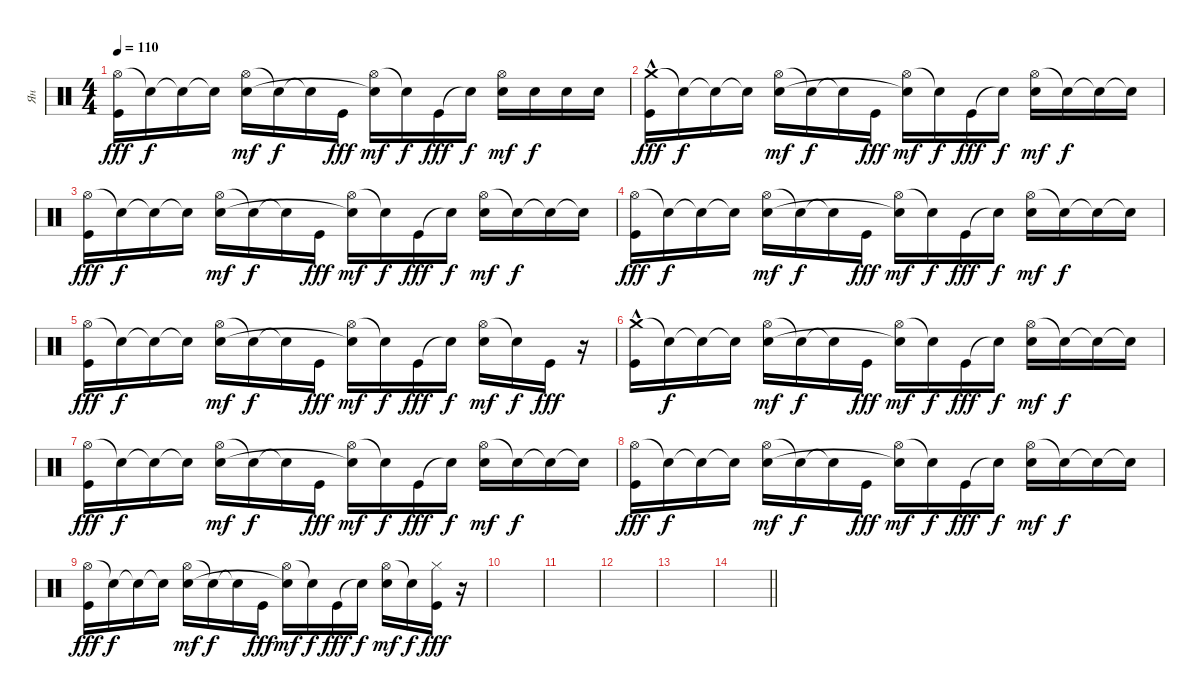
\track ("Ян " "Ян ") {instrument percussion}
\staff
\articulation defaults
\ts (4 4)
\tempo 110
\clef neutral
\ks c
("Hi-Hat (open)" "Kick (hit)").16{dy fff} "Snare (hit)"{t}.16{dy f} "Snare (hit)"{t}.16 "Snare (hit)"{t}.16 ("Hi-Hat (open)" "Snare (hit) 2").16{dy mf} "Snare (hit)"{t}.16{dy f} "Snare (hit)"{t}.16 "Kick (hit)".16{dy fff} ("Hi-Hat (open)" "Snare (hit)"{t}).16{dy mf} "Snare (hit)"{t}.16{dy f} "Kick (hit)".16{dy fff} "Snare (hit)"{t}.16{dy f} ("Hi-Hat (open)" "Snare (hit) 2").16{dy mf} "Snare (hit) 2".16{dy f} "Snare (hit) 2".16 "Snare (hit) 2".16 |
("Crash medium (hit)" "Kick (hit)"{hac}).16{dy fff} "Snare (hit)"{t}.16{dy f} "Snare (hit)"{t}.16 "Snare (hit)"{t}.16 ("Hi-Hat (open)" "Snare (hit) 2").16{dy mf} "Snare (hit)"{t}.16{dy f} "Snare (hit)"{t}.16 "Kick (hit)".16{dy fff} ("Hi-Hat (open)" "Snare (hit)"{t}).16{dy mf} "Snare (hit)"{t}.16{dy f} "Kick (hit)".16{dy fff} "Snare (hit)"{t}.16{dy f} ("Hi-Hat (open)" "Snare (hit) 2").16{dy mf} "Snare (hit)"{t}.16{dy f} "Snare (hit)"{t}.16 "Snare (hit)"{t}.16 |
("Hi-Hat (open)" "Kick (hit)").16{dy fff} "Snare (hit)"{t}.16{dy f} "Snare (hit)"{t}.16 "Snare (hit)"{t}.16 ("Hi-Hat (open)" "Snare (hit) 2").16{dy mf} "Snare (hit)"{t}.16{dy f} "Snare (hit)"{t}.16 "Kick (hit)".16{dy fff} ("Hi-Hat (open)" "Snare (hit)"{t}).16{dy mf} "Snare (hit)"{t}.16{dy f} "Kick (hit)".16{dy fff} "Snare (hit)"{t}.16{dy f} ("Hi-Hat (open)" "Snare (hit) 2").16{dy mf} "Snare (hit)"{t}.16{dy f} "Snare (hit)"{t}.16 "Snare (hit)"{t}.16 |
("Hi-Hat (open)" "Kick (hit)").16{dy fff} "Snare (hit)"{t}.16{dy f} "Snare (hit)"{t}.16 "Snare (hit)"{t}.16 ("Hi-Hat (open)" "Snare (hit) 2").16{dy mf} "Snare (hit)"{t}.16{dy f} "Snare (hit)"{t}.16 "Kick (hit)".16{dy fff} ("Hi-Hat (open)" "Snare (hit)"{t}).16{dy mf} "Snare (hit)"{t}.16{dy f} "Kick (hit)".16{dy fff} "Snare (hit)"{t}.16{dy f} ("Hi-Hat (open)" "Snare (hit) 2").16{dy mf} "Snare (hit)"{t}.16{dy f} "Snare (hit)"{t}.16 "Snare (hit)"{t}.16 |
("Hi-Hat (open)" "Kick (hit)").16{dy fff} "Snare (hit)"{t}.16{dy f} "Snare (hit)"{t}.16 "Snare (hit)"{t}.16 ("Hi-Hat (open)" "Snare (hit) 2").16{dy mf} "Snare (hit)"{t}.16{dy f} "Snare (hit)"{t}.16 "Kick (hit)".16{dy fff} ("Hi-Hat (open)" "Snare (hit)"{t}).16{dy mf} "Snare (hit)"{t}.16{dy f} "Kick (hit)".16{dy fff} "Snare (hit)"{t}.16{dy f} ("Hi-Hat (open)" "Snare (hit) 2").16{dy mf} "Snare (hit)"{t}.16{dy f} "Kick (hit)".16{dy fff} r.16 |
("Crash medium (hit)" "Kick (hit)"{hac}).16 "Snare (hit)"{t}.16{dy f} "Snare (hit)"{t}.16 "Snare (hit)"{t}.16 ("Hi-Hat (open)" "Snare (hit) 2").16{dy mf} "Snare (hit)"{t}.16{dy f} "Snare (hit)"{t}.16 "Kick (hit)".16{dy fff} ("Hi-Hat (open)" "Snare (hit)"{t}).16{dy mf} "Snare (hit)"{t}.16{dy f} "Kick (hit)".16{dy fff} "Snare (hit)"{t}.16{dy f} ("Hi-Hat (open)" "Snare (hit) 2").16{dy mf} "Snare (hit)"{t}.16{dy f} "Snare (hit)"{t}.16 "Snare (hit)"{t}.16 |
("Hi-Hat (open)" "Kick (hit)").16{dy fff} "Snare (hit)"{t}.16{dy f} "Snare (hit)"{t}.16 "Snare (hit)"{t}.16 ("Hi-Hat (open)" "Snare (hit) 2").16{dy mf} "Snare (hit)"{t}.16{dy f} "Snare (hit)"{t}.16 "Kick (hit)".16{dy fff} ("Hi-Hat (open)" "Snare (hit)"{t}).16{dy mf} "Snare (hit)"{t}.16{dy f} "Kick (hit)".16{dy fff} "Snare (hit)"{t}.16{dy f} ("Hi-Hat (open)" "Snare (hit) 2").16{dy mf} "Snare (hit)"{t}.16{dy f} "Snare (hit)"{t}.16 "Snare (hit)"{t}.16 |
("Hi-Hat (open)" "Kick (hit)").16{dy fff} "Snare (hit)"{t}.16{dy f} "Snare (hit)"{t}.16 "Snare (hit)"{t}.16 ("Hi-Hat (open)" "Snare (hit) 2").16{dy mf} "Snare (hit)"{t}.16{dy f} "Snare (hit)"{t}.16 "Kick (hit)".16{dy fff} ("Hi-Hat (open)" "Snare (hit)"{t}).16{dy mf} "Snare (hit)"{t}.16{dy f} "Kick (hit)".16{dy fff} "Snare (hit)"{t}.16{dy f} ("Hi-Hat (open)" "Snare (hit) 2").16{dy mf} "Snare (hit)"{t}.16{dy f} "Snare (hit)"{t}.16 "Snare (hit)"{t}.16 |
("Hi-Hat (open)" "Kick (hit)").16{dy fff} "Snare (hit)"{t}.16{dy f} "Snare (hit)"{t}.16 "Snare (hit)"{t}.16 ("Hi-Hat (open)" "Snare (hit) 2").16{dy mf} "Snare (hit)"{t}.16{dy f} "Snare (hit)"{t}.16 "Kick (hit)".16{dy fff} ("Hi-Hat (open)" "Snare (hit)"{t}).16{dy mf} "Snare (hit)"{t}.16{dy f} "Kick (hit)".16{dy fff} "Snare (hit)"{t}.16{dy f} ("Hi-Hat (open)" "Snare (hit) 2").16{dy mf} "Snare (hit)"{t}.16{dy f} ("Hi-Hat (closed)" "Kick (hit)").16{dy fff} r.16 |
|
|
|
|
\barLineRight lightlight
